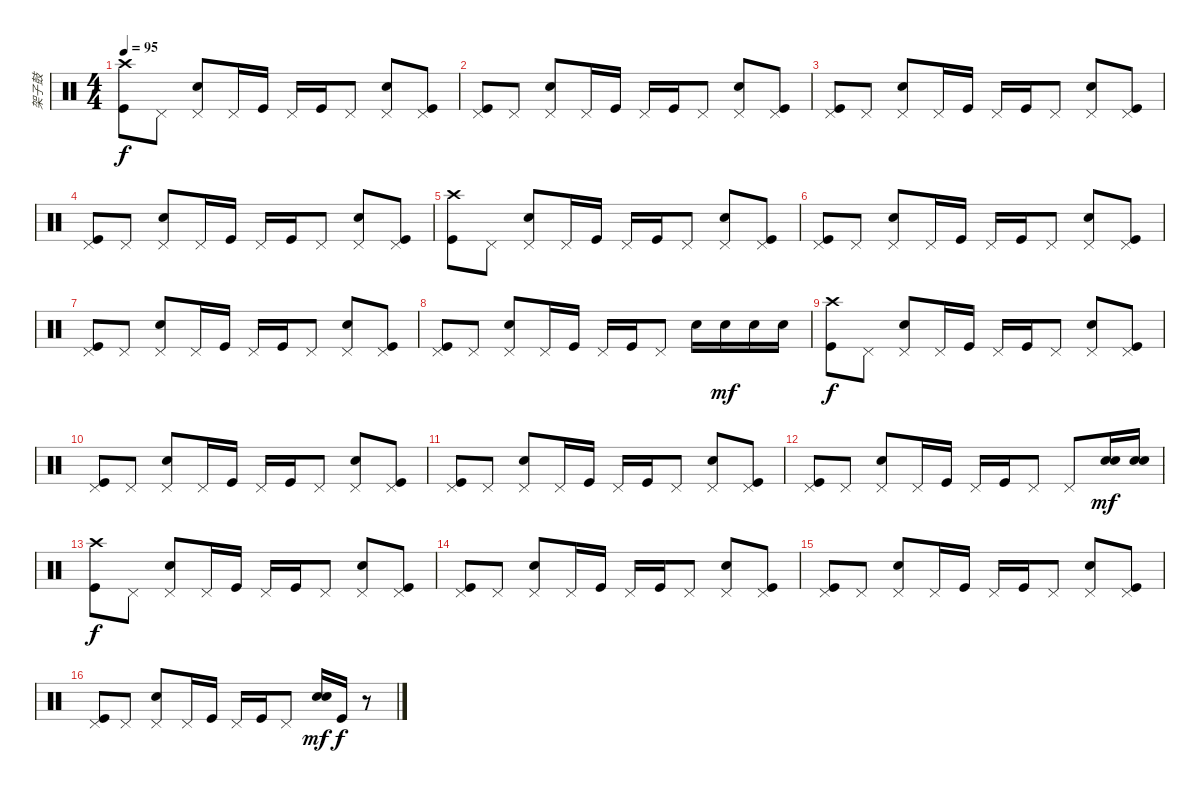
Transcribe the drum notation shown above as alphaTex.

\track ("架子鼓" "架子鼓") {instrument percussion}
\staff {score}
\articulation defaults
\ts (4 4)
\tempo 95
\clef neutral
\ks c
("Kick (hit)" "Crash high (hit)").8{dy f} "Pedal Hi-Hat (hit)".8 ("Snare (hit) 2" "Pedal Hi-Hat (hit)").8 "Pedal Hi-Hat (hit)".16 "Kick (hit)".16 "Pedal Hi-Hat (hit)".16 "Kick (hit)".16 "Pedal Hi-Hat (hit)".8 ("Snare (hit) 2" "Pedal Hi-Hat (hit)").8 ("Kick (hit)" "Pedal Hi-Hat (hit)").8 |
("Kick (hit)" "Pedal Hi-Hat (hit)").8 "Pedal Hi-Hat (hit)".8 ("Snare (hit) 2" "Pedal Hi-Hat (hit)").8 "Pedal Hi-Hat (hit)".16 "Kick (hit)".16 "Pedal Hi-Hat (hit)".16 "Kick (hit)".16 "Pedal Hi-Hat (hit)".8 ("Snare (hit) 2" "Pedal Hi-Hat (hit)").8 ("Kick (hit)" "Pedal Hi-Hat (hit)").8 |
("Kick (hit)" "Pedal Hi-Hat (hit)").8 "Pedal Hi-Hat (hit)".8 ("Snare (hit) 2" "Pedal Hi-Hat (hit)").8 "Pedal Hi-Hat (hit)".16 "Kick (hit)".16 "Pedal Hi-Hat (hit)".16 "Kick (hit)".16 "Pedal Hi-Hat (hit)".8 ("Snare (hit) 2" "Pedal Hi-Hat (hit)").8 ("Kick (hit)" "Pedal Hi-Hat (hit)").8 |
("Kick (hit)" "Pedal Hi-Hat (hit)").8 "Pedal Hi-Hat (hit)".8 ("Snare (hit) 2" "Pedal Hi-Hat (hit)").8 "Pedal Hi-Hat (hit)".16 "Kick (hit)".16 "Pedal Hi-Hat (hit)".16 "Kick (hit)".16 "Pedal Hi-Hat (hit)".8 ("Snare (hit) 2" "Pedal Hi-Hat (hit)").8 ("Kick (hit)" "Pedal Hi-Hat (hit)").8 |
("Kick (hit)" "Crash high (hit)").8 "Pedal Hi-Hat (hit)".8 ("Snare (hit) 2" "Pedal Hi-Hat (hit)").8 "Pedal Hi-Hat (hit)".16 "Kick (hit)".16 "Pedal Hi-Hat (hit)".16 "Kick (hit)".16 "Pedal Hi-Hat (hit)".8 ("Snare (hit) 2" "Pedal Hi-Hat (hit)").8 ("Kick (hit)" "Pedal Hi-Hat (hit)").8 |
("Kick (hit)" "Pedal Hi-Hat (hit)").8 "Pedal Hi-Hat (hit)".8 ("Snare (hit) 2" "Pedal Hi-Hat (hit)").8 "Pedal Hi-Hat (hit)".16 "Kick (hit)".16 "Pedal Hi-Hat (hit)".16 "Kick (hit)".16 "Pedal Hi-Hat (hit)".8 ("Snare (hit) 2" "Pedal Hi-Hat (hit)").8 ("Kick (hit)" "Pedal Hi-Hat (hit)").8 |
("Kick (hit)" "Pedal Hi-Hat (hit)").8 "Pedal Hi-Hat (hit)".8 ("Snare (hit) 2" "Pedal Hi-Hat (hit)").8 "Pedal Hi-Hat (hit)".16 "Kick (hit)".16 "Pedal Hi-Hat (hit)".16 "Kick (hit)".16 "Pedal Hi-Hat (hit)".8 ("Snare (hit) 2" "Pedal Hi-Hat (hit)").8 ("Kick (hit)" "Pedal Hi-Hat (hit)").8 |
("Kick (hit)" "Pedal Hi-Hat (hit)").8 "Pedal Hi-Hat (hit)".8 ("Snare (hit) 2" "Pedal Hi-Hat (hit)").8 "Pedal Hi-Hat (hit)".16 "Kick (hit)".16 "Pedal Hi-Hat (hit)".16 "Kick (hit)".16 "Pedal Hi-Hat (hit)".8 "Snare (hit) 2".16 "Snare (hit) 2".16{dy mf} "Snare (hit) 2".16 "Snare (hit) 2".16 |
("Kick (hit)" "Crash high (hit)").8{dy f} "Pedal Hi-Hat (hit)".8 ("Snare (hit) 2" "Pedal Hi-Hat (hit)").8 "Pedal Hi-Hat (hit)".16 "Kick (hit)".16 "Pedal Hi-Hat (hit)".16 "Kick (hit)".16 "Pedal Hi-Hat (hit)".8 ("Snare (hit) 2" "Pedal Hi-Hat (hit)").8 ("Kick (hit)" "Pedal Hi-Hat (hit)").8 |
("Kick (hit)" "Pedal Hi-Hat (hit)").8 "Pedal Hi-Hat (hit)".8 ("Snare (hit) 2" "Pedal Hi-Hat (hit)").8 "Pedal Hi-Hat (hit)".16 "Kick (hit)".16 "Pedal Hi-Hat (hit)".16 "Kick (hit)".16 "Pedal Hi-Hat (hit)".8 ("Snare (hit) 2" "Pedal Hi-Hat (hit)").8 ("Kick (hit)" "Pedal Hi-Hat (hit)").8 |
("Kick (hit)" "Pedal Hi-Hat (hit)").8 "Pedal Hi-Hat (hit)".8 ("Snare (hit) 2" "Pedal Hi-Hat (hit)").8 "Pedal Hi-Hat (hit)".16 "Kick (hit)".16 "Pedal Hi-Hat (hit)".16 "Kick (hit)".16 "Pedal Hi-Hat (hit)".8 ("Snare (hit) 2" "Pedal Hi-Hat (hit)").8 ("Kick (hit)" "Pedal Hi-Hat (hit)").8 |
("Kick (hit)" "Pedal Hi-Hat (hit)").8 "Pedal Hi-Hat (hit)".8 ("Snare (hit) 2" "Pedal Hi-Hat (hit)").8 "Pedal Hi-Hat (hit)".16 "Kick (hit)".16 "Pedal Hi-Hat (hit)".16 "Kick (hit)".16 "Pedal Hi-Hat (hit)".8 "Pedal Hi-Hat (hit)".8 ("Snare (hit) 2" "Snare (hit) 2").16{dy mf} ("Snare (hit) 2" "Snare (hit) 2").16 |
("Kick (hit)" "Crash high (hit)").8{dy f} "Pedal Hi-Hat (hit)".8 ("Snare (hit) 2" "Pedal Hi-Hat (hit)").8 "Pedal Hi-Hat (hit)".16 "Kick (hit)".16 "Pedal Hi-Hat (hit)".16 "Kick (hit)".16 "Pedal Hi-Hat (hit)".8 ("Snare (hit) 2" "Pedal Hi-Hat (hit)").8 ("Kick (hit)" "Pedal Hi-Hat (hit)").8 |
("Kick (hit)" "Pedal Hi-Hat (hit)").8 "Pedal Hi-Hat (hit)".8 ("Snare (hit) 2" "Pedal Hi-Hat (hit)").8 "Pedal Hi-Hat (hit)".16 "Kick (hit)".16 "Pedal Hi-Hat (hit)".16 "Kick (hit)".16 "Pedal Hi-Hat (hit)".8 ("Snare (hit) 2" "Pedal Hi-Hat (hit)").8 ("Kick (hit)" "Pedal Hi-Hat (hit)").8 |
("Kick (hit)" "Pedal Hi-Hat (hit)").8 "Pedal Hi-Hat (hit)".8 ("Snare (hit) 2" "Pedal Hi-Hat (hit)").8 "Pedal Hi-Hat (hit)".16 "Kick (hit)".16 "Pedal Hi-Hat (hit)".16 "Kick (hit)".16 "Pedal Hi-Hat (hit)".8 ("Snare (hit) 2" "Pedal Hi-Hat (hit)").8 ("Kick (hit)" "Pedal Hi-Hat (hit)").8 |
("Kick (hit)" "Pedal Hi-Hat (hit)").8 "Pedal Hi-Hat (hit)".8 ("Snare (hit) 2" "Pedal Hi-Hat (hit)").8 "Pedal Hi-Hat (hit)".16 "Kick (hit)".16 "Pedal Hi-Hat (hit)".16 "Kick (hit)".16 "Pedal Hi-Hat (hit)".8 ("Snare (hit) 2" "Snare (hit) 2").16{dy mf} "Kick (hit)".16{dy f} r.8
